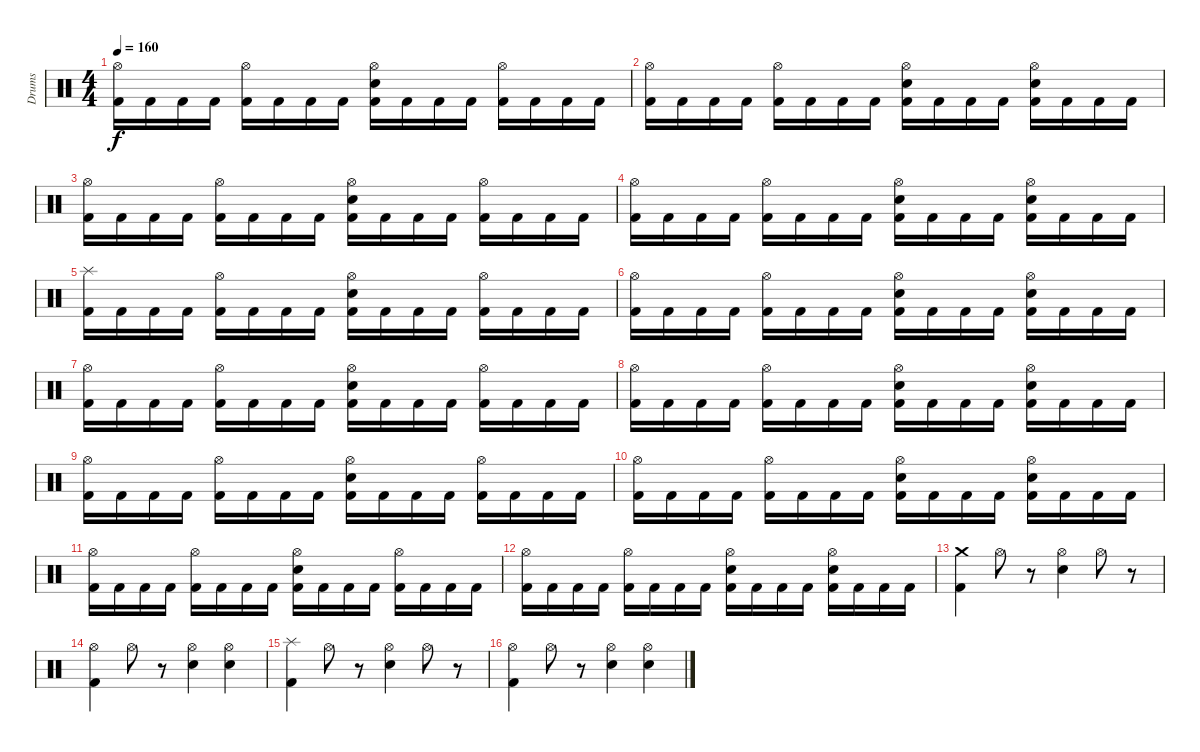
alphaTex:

\track ("Drums" "Drums") {instrument percussion}
\staff {score}
\articulation defaults
\ts (4 4)
\tempo 160
\clef neutral
\ks c
("Hi-Hat (open)" "Kick (hit) 2").16{dy f} "Kick (hit) 2".16 "Kick (hit) 2".16 "Kick (hit) 2".16 ("Hi-Hat (open)" "Kick (hit) 2").16 "Kick (hit) 2".16 "Kick (hit) 2".16 "Kick (hit) 2".16 ("Hi-Hat (open)" "Electric Snare (hit)" "Kick (hit) 2").16 "Kick (hit) 2".16 "Kick (hit) 2".16 "Kick (hit) 2".16 ("Hi-Hat (open)" "Kick (hit) 2").16 "Kick (hit) 2".16 "Kick (hit) 2".16 "Kick (hit) 2".16 |
("Hi-Hat (open)" "Kick (hit) 2").16 "Kick (hit) 2".16 "Kick (hit) 2".16 "Kick (hit) 2".16 ("Hi-Hat (open)" "Kick (hit) 2").16 "Kick (hit) 2".16 "Kick (hit) 2".16 "Kick (hit) 2".16 ("Hi-Hat (open)" "Electric Snare (hit)" "Kick (hit) 2").16 "Kick (hit) 2".16 "Kick (hit) 2".16 "Kick (hit) 2".16 ("Electric Snare (hit)" "Hi-Hat (open)" "Kick (hit) 2").16 "Kick (hit) 2".16 "Kick (hit) 2".16 "Kick (hit) 2".16 |
("Hi-Hat (open)" "Kick (hit) 2").16 "Kick (hit) 2".16 "Kick (hit) 2".16 "Kick (hit) 2".16 ("Hi-Hat (open)" "Kick (hit) 2").16 "Kick (hit) 2".16 "Kick (hit) 2".16 "Kick (hit) 2".16 ("Hi-Hat (open)" "Electric Snare (hit)" "Kick (hit) 2").16 "Kick (hit) 2".16 "Kick (hit) 2".16 "Kick (hit) 2".16 ("Hi-Hat (open)" "Kick (hit) 2").16 "Kick (hit) 2".16 "Kick (hit) 2".16 "Kick (hit) 2".16 |
("Hi-Hat (open)" "Kick (hit) 2").16 "Kick (hit) 2".16 "Kick (hit) 2".16 "Kick (hit) 2".16 ("Hi-Hat (open)" "Kick (hit) 2").16 "Kick (hit) 2".16 "Kick (hit) 2".16 "Kick (hit) 2".16 ("Hi-Hat (open)" "Electric Snare (hit)" "Kick (hit) 2").16 "Kick (hit) 2".16 "Kick (hit) 2".16 "Kick (hit) 2".16 ("Electric Snare (hit)" "Hi-Hat (open)" "Kick (hit) 2").16 "Kick (hit) 2".16 "Kick (hit) 2".16 "Kick (hit) 2".16 |
("Splash (hit)" "Kick (hit) 2").16 "Kick (hit) 2".16 "Kick (hit) 2".16 "Kick (hit) 2".16 ("Hi-Hat (open)" "Kick (hit) 2").16 "Kick (hit) 2".16 "Kick (hit) 2".16 "Kick (hit) 2".16 ("Hi-Hat (open)" "Electric Snare (hit)" "Kick (hit) 2").16 "Kick (hit) 2".16 "Kick (hit) 2".16 "Kick (hit) 2".16 ("Hi-Hat (open)" "Kick (hit) 2").16 "Kick (hit) 2".16 "Kick (hit) 2".16 "Kick (hit) 2".16 |
("Hi-Hat (open)" "Kick (hit) 2").16 "Kick (hit) 2".16 "Kick (hit) 2".16 "Kick (hit) 2".16 ("Hi-Hat (open)" "Kick (hit) 2").16 "Kick (hit) 2".16 "Kick (hit) 2".16 "Kick (hit) 2".16 ("Hi-Hat (open)" "Electric Snare (hit)" "Kick (hit) 2").16 "Kick (hit) 2".16 "Kick (hit) 2".16 "Kick (hit) 2".16 ("Electric Snare (hit)" "Hi-Hat (open)" "Kick (hit) 2").16 "Kick (hit) 2".16 "Kick (hit) 2".16 "Kick (hit) 2".16 |
("Hi-Hat (open)" "Kick (hit) 2").16 "Kick (hit) 2".16 "Kick (hit) 2".16 "Kick (hit) 2".16 ("Hi-Hat (open)" "Kick (hit) 2").16 "Kick (hit) 2".16 "Kick (hit) 2".16 "Kick (hit) 2".16 ("Hi-Hat (open)" "Electric Snare (hit)" "Kick (hit) 2").16 "Kick (hit) 2".16 "Kick (hit) 2".16 "Kick (hit) 2".16 ("Hi-Hat (open)" "Kick (hit) 2").16 "Kick (hit) 2".16 "Kick (hit) 2".16 "Kick (hit) 2".16 |
("Hi-Hat (open)" "Kick (hit) 2").16 "Kick (hit) 2".16 "Kick (hit) 2".16 "Kick (hit) 2".16 ("Hi-Hat (open)" "Kick (hit) 2").16 "Kick (hit) 2".16 "Kick (hit) 2".16 "Kick (hit) 2".16 ("Hi-Hat (open)" "Electric Snare (hit)" "Kick (hit) 2").16 "Kick (hit) 2".16 "Kick (hit) 2".16 "Kick (hit) 2".16 ("Electric Snare (hit)" "Hi-Hat (open)" "Kick (hit) 2").16 "Kick (hit) 2".16 "Kick (hit) 2".16 "Kick (hit) 2".16 |
("Hi-Hat (open)" "Kick (hit) 2").16 "Kick (hit) 2".16 "Kick (hit) 2".16 "Kick (hit) 2".16 ("Hi-Hat (open)" "Kick (hit) 2").16 "Kick (hit) 2".16 "Kick (hit) 2".16 "Kick (hit) 2".16 ("Hi-Hat (open)" "Electric Snare (hit)" "Kick (hit) 2").16 "Kick (hit) 2".16 "Kick (hit) 2".16 "Kick (hit) 2".16 ("Hi-Hat (open)" "Kick (hit) 2").16 "Kick (hit) 2".16 "Kick (hit) 2".16 "Kick (hit) 2".16 |
("Hi-Hat (open)" "Kick (hit) 2").16 "Kick (hit) 2".16 "Kick (hit) 2".16 "Kick (hit) 2".16 ("Hi-Hat (open)" "Kick (hit) 2").16 "Kick (hit) 2".16 "Kick (hit) 2".16 "Kick (hit) 2".16 ("Hi-Hat (open)" "Electric Snare (hit)" "Kick (hit) 2").16 "Kick (hit) 2".16 "Kick (hit) 2".16 "Kick (hit) 2".16 ("Electric Snare (hit)" "Hi-Hat (open)" "Kick (hit) 2").16 "Kick (hit) 2".16 "Kick (hit) 2".16 "Kick (hit) 2".16 |
("Hi-Hat (open)" "Kick (hit) 2").16 "Kick (hit) 2".16 "Kick (hit) 2".16 "Kick (hit) 2".16 ("Hi-Hat (open)" "Kick (hit) 2").16 "Kick (hit) 2".16 "Kick (hit) 2".16 "Kick (hit) 2".16 ("Hi-Hat (open)" "Electric Snare (hit)" "Kick (hit) 2").16 "Kick (hit) 2".16 "Kick (hit) 2".16 "Kick (hit) 2".16 ("Hi-Hat (open)" "Kick (hit) 2").16 "Kick (hit) 2".16 "Kick (hit) 2".16 "Kick (hit) 2".16 |
("Hi-Hat (open)" "Kick (hit) 2").16 "Kick (hit) 2".16 "Kick (hit) 2".16 "Kick (hit) 2".16 ("Hi-Hat (open)" "Kick (hit) 2").16 "Kick (hit) 2".16 "Kick (hit) 2".16 "Kick (hit) 2".16 ("Hi-Hat (open)" "Electric Snare (hit)" "Kick (hit) 2").16 "Kick (hit) 2".16 "Kick (hit) 2".16 "Kick (hit) 2".16 ("Electric Snare (hit)" "Hi-Hat (open)" "Kick (hit) 2").16 "Kick (hit) 2".16 "Kick (hit) 2".16 "Kick (hit) 2".16 |
("Crash medium (hit)" "Kick (hit) 2").4 "Hi-Hat (open)".8 r.8 ("Hi-Hat (open)" "Electric Snare (hit)").4 "Hi-Hat (open)".8 r.8 |
("Hi-Hat (open)" "Kick (hit) 2").4 "Hi-Hat (open)".8 r.8 ("Hi-Hat (open)" "Electric Snare (hit)").4 ("Hi-Hat (open)" "Electric Snare (hit)").4 |
("Splash (hit)" "Kick (hit) 2").4 "Hi-Hat (open)".8 r.8 ("Hi-Hat (open)" "Electric Snare (hit)").4 "Hi-Hat (open)".8 r.8 |
("Hi-Hat (open)" "Kick (hit) 2").4 "Hi-Hat (open)".8 r.8 ("Hi-Hat (open)" "Electric Snare (hit)").4 ("Hi-Hat (open)" "Electric Snare (hit)").4
